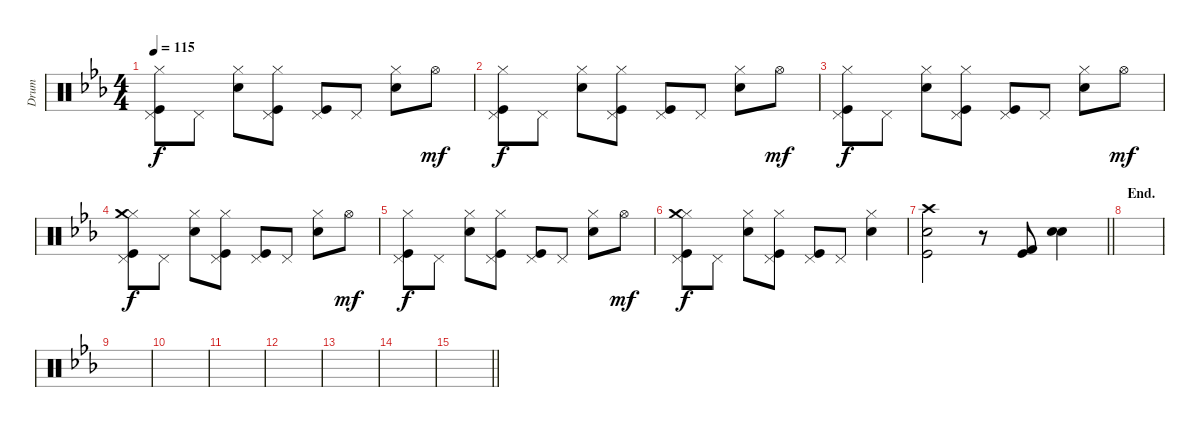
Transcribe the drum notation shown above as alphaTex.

\track ("Drum" "Drum") {instrument percussion}
\staff {score}
\articulation defaults
\ts (4 4)
\tempo 115
\clef neutral
\ks eb
("Hi-Hat (closed)" "Pedal Hi-Hat (hit)" "Kick (hit)").8{dy f} "Pedal Hi-Hat (hit)".8 ("Hi-Hat (closed)" "Snare (hit) 2").8 ("Hi-Hat (closed)" "Pedal Hi-Hat (hit)" "Kick (hit)").8 ("Kick (hit)" "Pedal Hi-Hat (hit)").8 "Pedal Hi-Hat (hit)".8 ("Hi-Hat (closed)" "Snare (hit) 2").8 "Hi-Hat (open)".8{dy mf} |
("Hi-Hat (closed)" "Pedal Hi-Hat (hit)" "Kick (hit)").8{dy f} "Pedal Hi-Hat (hit)".8 ("Hi-Hat (closed)" "Snare (hit) 2").8 ("Hi-Hat (closed)" "Pedal Hi-Hat (hit)" "Kick (hit)").8 ("Kick (hit)" "Pedal Hi-Hat (hit)").8 "Pedal Hi-Hat (hit)".8 ("Hi-Hat (closed)" "Snare (hit) 2").8 "Hi-Hat (open)".8{dy mf} |
("Hi-Hat (closed)" "Pedal Hi-Hat (hit)" "Kick (hit)").8{dy f} "Pedal Hi-Hat (hit)".8 ("Hi-Hat (closed)" "Snare (hit) 2").8 ("Hi-Hat (closed)" "Pedal Hi-Hat (hit)" "Kick (hit)").8 ("Kick (hit)" "Pedal Hi-Hat (hit)").8 "Pedal Hi-Hat (hit)".8 ("Hi-Hat (closed)" "Snare (hit) 2").8 "Hi-Hat (open)".8{dy mf} |
("Hi-Hat (closed)" "Pedal Hi-Hat (hit)" "Kick (hit)" "Crash medium (hit)").8{dy f} "Pedal Hi-Hat (hit)".8 ("Hi-Hat (closed)" "Snare (hit) 2").8 ("Hi-Hat (closed)" "Pedal Hi-Hat (hit)" "Kick (hit)").8 ("Kick (hit)" "Pedal Hi-Hat (hit)").8 "Pedal Hi-Hat (hit)".8 ("Hi-Hat (closed)" "Snare (hit) 2").8 "Hi-Hat (open)".8{dy mf} |
("Hi-Hat (closed)" "Pedal Hi-Hat (hit)" "Kick (hit)").8{dy f} "Pedal Hi-Hat (hit)".8 ("Hi-Hat (closed)" "Snare (hit) 2").8 ("Hi-Hat (closed)" "Pedal Hi-Hat (hit)" "Kick (hit)").8 ("Kick (hit)" "Pedal Hi-Hat (hit)").8 "Pedal Hi-Hat (hit)".8 ("Hi-Hat (closed)" "Snare (hit) 2").8 "Hi-Hat (open)".8{dy mf} |
("Hi-Hat (closed)" "Pedal Hi-Hat (hit)" "Kick (hit)" "Crash medium (hit)").8{dy f} "Pedal Hi-Hat (hit)".8 ("Hi-Hat (closed)" "Snare (hit) 2").8 ("Hi-Hat (closed)" "Pedal Hi-Hat (hit)" "Kick (hit)").8 ("Kick (hit)" "Pedal Hi-Hat (hit)").8 "Pedal Hi-Hat (hit)".8 ("Hi-Hat (closed)" "Snare (hit) 2").4 |
\barLineRight lightlight
("Kick (hit)" "Snare (hit) 2" "Crash high (hit)").2 r.8 ("Kick (hit)" "Kick (hit) 2").8 ("Snare (hit) 2" "Electric Snare (hit)").4 |
\section ("" "End.")
|
|
|
|
|
|
|
\barLineRight lightlight
